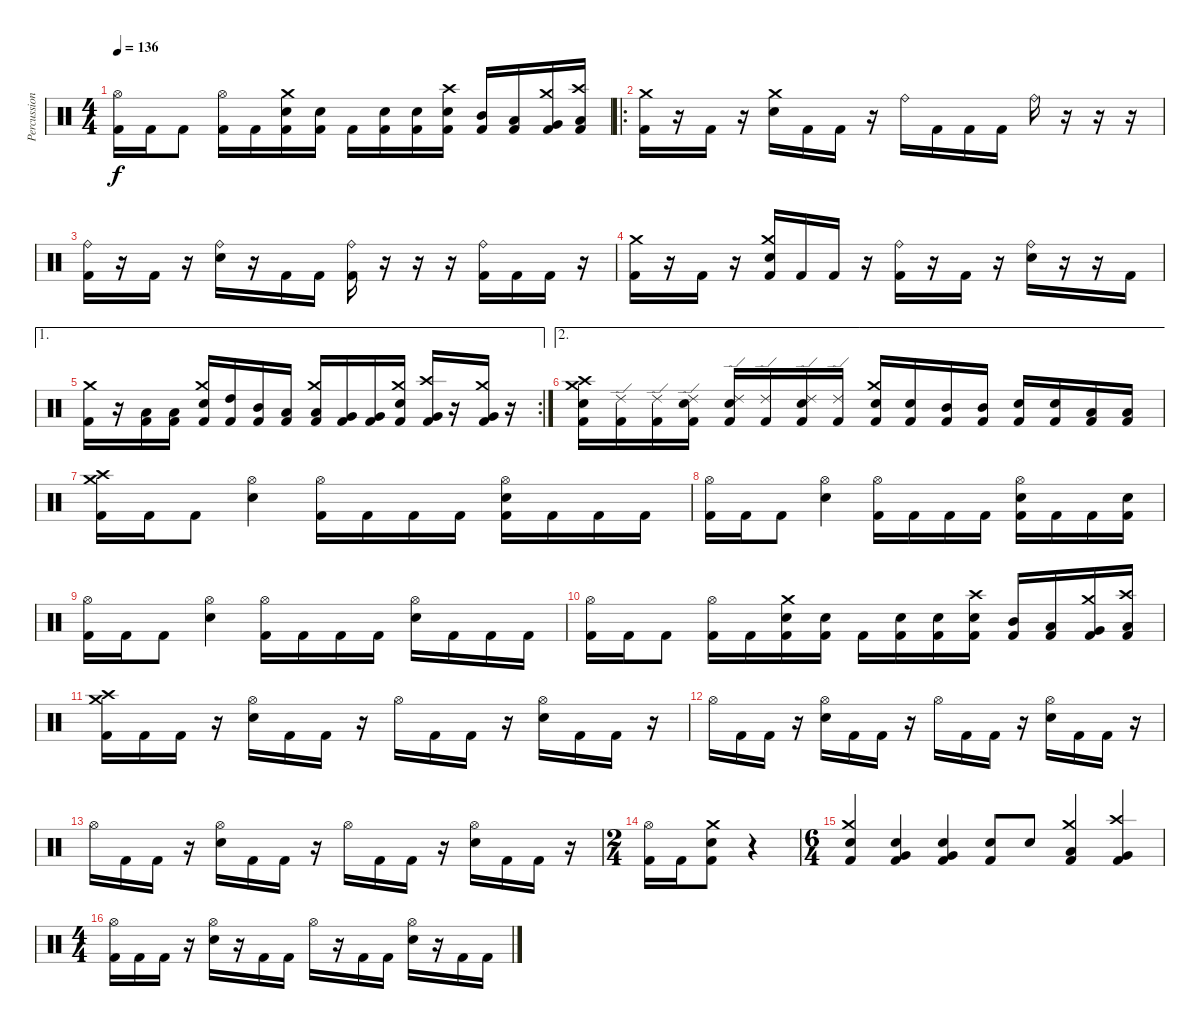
\track ("Percussion" "Percussion") {instrument percussion}
\staff {score}
\articulation defaults
\ts (4 4)
\tempo 136
\clef neutral
\ks c
("Hi-Hat (open)" "Kick (hit) 2").16{dy f} "Kick (hit) 2".16 "Kick (hit) 2".8 ("Hi-Hat (open)" "Kick (hit) 2").16 "Kick (hit) 2".16 ("Crash medium (hit)" "Electric Snare (hit)" "Kick (hit) 2").16 ("Electric Snare (hit)" "Kick (hit) 2").16 "Kick (hit) 2".16 ("Snare (hit) 2" "Kick (hit) 2").16 ("Electric Snare (hit)" "Kick (hit) 2").16 ("Crash high (hit)" "Electric Snare (hit)" "Kick (hit) 2").16 ("Mid Tom (hit)" "Kick (hit) 2").16 ("Low Tom (hit)" "Kick (hit) 2").16 ("Crash medium (hit)" "Very Low Tom (hit)" "Kick (hit) 2").16 ("Crash high (hit)" "Low Floor Tom (hit)" "Kick (hit) 2").16 |
\ro
("Crash medium (hit)" "Kick (hit) 2").16 r.16 "Kick (hit) 2".16 r.16 ("Crash medium (hit)" "Electric Snare (hit)").16 "Kick (hit) 2".16 "Kick (hit) 2".16 r.16 "Ride (bell)".16 "Kick (hit) 2".16 "Kick (hit) 2".16 "Kick (hit) 2".16 "Ride (bell)".16 r.16 r.16 r.16 |
("Ride (bell)" "Kick (hit) 2").16 r.16 "Kick (hit) 2".16 r.16 ("Electric Snare (hit)" "Ride (bell)").16 r.16 "Kick (hit) 2".16 "Kick (hit) 2".16 ("Ride (bell)" "Kick (hit) 2").16 r.16 r.16 r.16 ("Ride (bell)" "Kick (hit) 2").16 "Kick (hit) 2".16 "Kick (hit) 2".16 r.16 |
("Crash medium (hit)" "Kick (hit) 2").16 r.16 "Kick (hit) 2".16 r.16 ("Crash medium (hit)" "Electric Snare (hit)" "Kick (hit) 2").16 "Kick (hit) 2".16 "Kick (hit) 2".16 r.16 ("Ride (bell)" "Kick (hit) 2").16 r.16 "Kick (hit) 2".16 r.16 ("Electric Snare (hit)" "Ride (bell)").16 r.16 r.16 "Kick (hit) 2".16 |
\ae 1
\rc 2
("Crash medium (hit)" "Kick (hit) 2").16 r.16 ("Low Tom (hit)" "Kick (hit) 2").16 ("Low Tom (hit)" "Kick (hit) 2").16 ("Crash medium (hit)" "Electric Snare (hit)" "Kick (hit) 2").16 ("High Tom (hit)" "Kick (hit) 2").16 ("Mid Tom (hit)" "Kick (hit) 2").16 ("Low Tom (hit)" "Kick (hit) 2").16 ("Crash medium (hit)" "Low Tom (hit)" "Kick (hit) 2").16 ("Very Low Tom (hit)" "Kick (hit) 2").16 ("Very Low Tom (hit)" "Kick (hit) 2").16 ("Crash medium (hit)" "Electric Snare (hit)" "Kick (hit) 2").16 ("Crash high (hit)" "Very Low Tom (hit)" "Kick (hit) 2").16 r.16 ("Crash medium (hit)" "Very Low Tom (hit)" "Kick (hit) 2").16 r.16 |
\ae 2
("Crash medium (hit)" "Crash high (hit)" "Electric Snare (hit)" "Kick (hit) 2").16 ("Ride (edge) 2" "Kick (hit) 2").16 ("Ride (edge) 2" "Kick (hit) 2").16 ("Ride (edge) 2" "Electric Snare (hit)" "Kick (hit) 2").16 ("Ride (edge) 2" "Electric Snare (hit)" "Kick (hit) 2").16 ("Ride (edge) 2" "Kick (hit) 2").16 ("Ride (edge) 2" "Electric Snare (hit)" "Kick (hit) 2").16 ("Ride (edge) 2" "Kick (hit) 2").16 ("Crash medium (hit)" "Electric Snare (hit)" "Kick (hit) 2").16 ("Electric Snare (hit)" "Kick (hit) 2").16 ("Mid Tom (hit)" "Kick (hit) 2").16 ("Mid Tom (hit)" "Kick (hit) 2").16 ("Electric Snare (hit)" "Kick (hit) 2").16 ("Electric Snare (hit)" "Kick (hit) 2").16 ("Low Tom (hit)" "Kick (hit) 2").16 ("Low Tom (hit)" "Kick (hit) 2").16 |
("Crash medium (hit)" "Crash high (hit)" "Kick (hit) 2").16 "Kick (hit) 2".16 "Kick (hit) 2".8 ("Hi-Hat (open)" "Electric Snare (hit)").4 ("Hi-Hat (open)" "Kick (hit) 2").16 "Kick (hit) 2".16 "Kick (hit) 2".16 "Kick (hit) 2".16 ("Hi-Hat (open)" "Electric Snare (hit)" "Kick (hit) 2").16 "Kick (hit) 2".16 "Kick (hit) 2".16 "Kick (hit) 2".16 |
("Hi-Hat (open)" "Kick (hit) 2").16 "Kick (hit) 2".16 "Kick (hit) 2".8 ("Hi-Hat (open)" "Electric Snare (hit)").4 ("Hi-Hat (open)" "Kick (hit) 2").16 "Kick (hit) 2".16 "Kick (hit) 2".16 "Kick (hit) 2".16 ("Hi-Hat (open)" "Electric Snare (hit)" "Kick (hit) 2").16 "Kick (hit) 2".16 "Kick (hit) 2".16 ("Electric Snare (hit)" "Kick (hit) 2").16 |
("Hi-Hat (open)" "Kick (hit) 2").16 "Kick (hit) 2".16 "Kick (hit) 2".8 ("Hi-Hat (open)" "Electric Snare (hit)").4 ("Hi-Hat (open)" "Kick (hit) 2").16 "Kick (hit) 2".16 "Kick (hit) 2".16 "Kick (hit) 2".16 ("Hi-Hat (open)" "Electric Snare (hit)").16 "Kick (hit) 2".16 "Kick (hit) 2".16 "Kick (hit) 2".16 |
("Hi-Hat (open)" "Kick (hit) 2").16 "Kick (hit) 2".16 "Kick (hit) 2".8 ("Hi-Hat (open)" "Kick (hit) 2").16 "Kick (hit) 2".16 ("Crash medium (hit)" "Electric Snare (hit)" "Kick (hit) 2").16 ("Electric Snare (hit)" "Kick (hit) 2").16 "Kick (hit) 2".16 ("Snare (hit) 2" "Kick (hit) 2").16 ("Electric Snare (hit)" "Kick (hit) 2").16 ("Crash high (hit)" "Electric Snare (hit)" "Kick (hit) 2").16 ("Mid Tom (hit)" "Kick (hit) 2").16 ("Low Tom (hit)" "Kick (hit) 2").16 ("Crash medium (hit)" "Very Low Tom (hit)" "Kick (hit) 2").16 ("Crash high (hit)" "Low Floor Tom (hit)" "Kick (hit) 2").16 |
("Crash medium (hit)" "Crash high (hit)" "Kick (hit) 2").16 "Kick (hit) 2".16 "Kick (hit) 2".16 r.16 ("Hi-Hat (open)" "Electric Snare (hit)").16 "Kick (hit) 2".16 "Kick (hit) 2".16 r.16 "Hi-Hat (open)".16 "Kick (hit) 2".16 "Kick (hit) 2".16 r.16 ("Hi-Hat (open)" "Electric Snare (hit)").16 "Kick (hit) 2".16 "Kick (hit) 2".16 r.16 |
"Hi-Hat (open)".16 "Kick (hit) 2".16 "Kick (hit) 2".16 r.16 ("Hi-Hat (open)" "Electric Snare (hit)").16 "Kick (hit) 2".16 "Kick (hit) 2".16 r.16 "Hi-Hat (open)".16 "Kick (hit) 2".16 "Kick (hit) 2".16 r.16 ("Hi-Hat (open)" "Electric Snare (hit)").16 "Kick (hit) 2".16 "Kick (hit) 2".16 r.16 |
"Hi-Hat (open)".16 "Kick (hit) 2".16 "Kick (hit) 2".16 r.16 ("Hi-Hat (open)" "Electric Snare (hit)").16 "Kick (hit) 2".16 "Kick (hit) 2".16 r.16 "Hi-Hat (open)".16 "Kick (hit) 2".16 "Kick (hit) 2".16 r.16 ("Hi-Hat (open)" "Electric Snare (hit)").16 "Kick (hit) 2".16 "Kick (hit) 2".16 r.16 |
\ts (2 4)
("Hi-Hat (open)" "Kick (hit) 2").16 "Kick (hit) 2".16 ("Crash medium (hit)" "Electric Snare (hit)" "Kick (hit) 2").8 r.4 |
\ts (6 4)
("Crash medium (hit)" "Electric Snare (hit)" "Kick (hit) 2").4 ("Electric Snare (hit)" "Very Low Tom (hit)" "Kick (hit) 2").4 ("Electric Snare (hit)" "Very Low Tom (hit)" "Kick (hit) 2").4 ("Electric Snare (hit)" "Kick (hit) 2").8 "Electric Snare (hit)".8 ("Crash medium (hit)" "Low Tom (hit)" "Kick (hit) 2").4 ("Crash high (hit)" "Very Low Tom (hit)" "Kick (hit) 2").4 |
\ts (4 4)
("Hi-Hat (open)" "Kick (hit) 2").16 "Kick (hit) 2".16 "Kick (hit) 2".16 r.16 ("Hi-Hat (open)" "Electric Snare (hit)").16 r.16 "Kick (hit) 2".16 "Kick (hit) 2".16 "Hi-Hat (open)".16 r.16 "Kick (hit) 2".16 "Kick (hit) 2".16 ("Hi-Hat (open)" "Electric Snare (hit)").16 r.16 "Kick (hit) 2".16 "Kick (hit) 2".16
